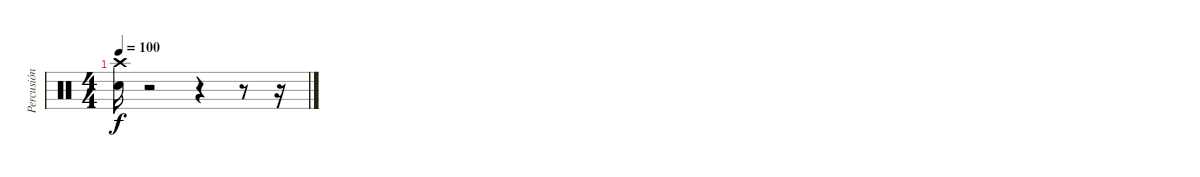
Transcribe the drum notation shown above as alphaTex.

\track ("Percusión" "Percusión") {instrument percussion}
\staff {score}
\articulation defaults
\ts (4 4)
\tempo 100
\clef neutral
\ks c
("Electric Snare (hit)" "Crash high (hit)").16{dy f} r.2 r.4 r.8 r.16
